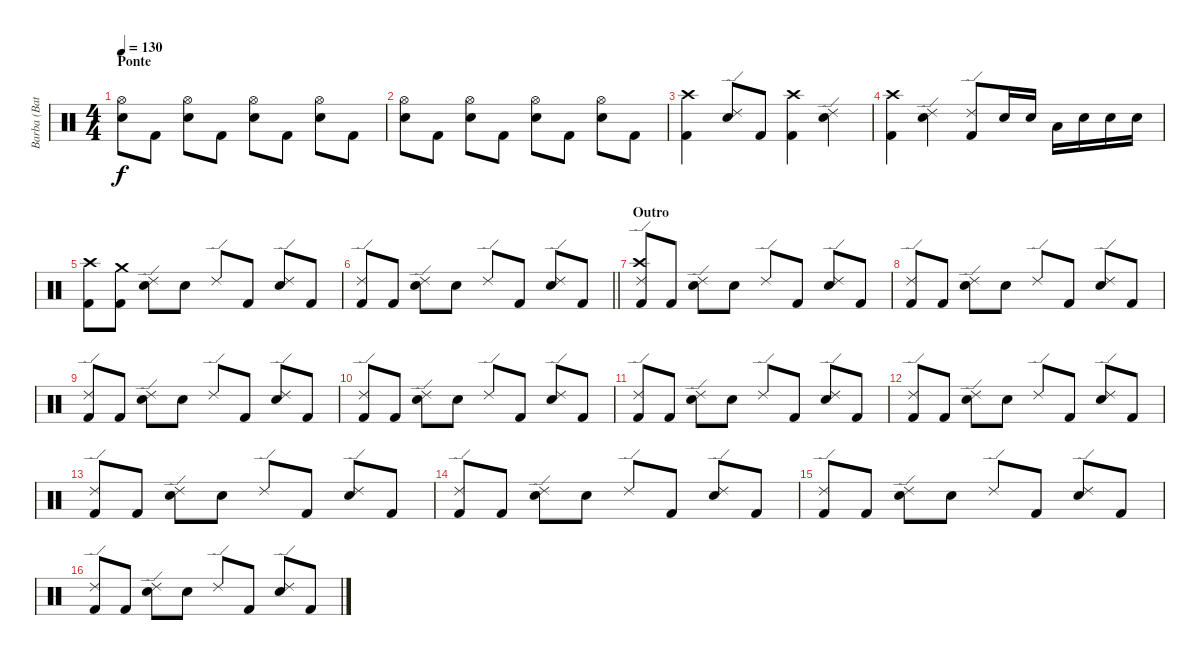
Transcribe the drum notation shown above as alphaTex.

\track ("Barba (Bateria)" "Barba (Bat") {instrument percussion}
\staff {score}
\articulation defaults
\ts (4 4)
\section ("" "Ponte")
\tempo 130
\clef neutral
\ks c
("Hi-Hat (open)" "Electric Snare (hit)").8{dy f} "Kick (hit) 2".8 ("Hi-Hat (open)" "Electric Snare (hit)").8 "Kick (hit) 2".8 ("Hi-Hat (open)" "Electric Snare (hit)").8 "Kick (hit) 2".8 ("Hi-Hat (open)" "Electric Snare (hit)").8 "Kick (hit) 2".8 |
("Hi-Hat (open)" "Electric Snare (hit)").8 "Kick (hit) 2".8 ("Hi-Hat (open)" "Electric Snare (hit)").8 "Kick (hit) 2".8 ("Hi-Hat (open)" "Electric Snare (hit)").8 "Kick (hit) 2".8 ("Hi-Hat (open)" "Electric Snare (hit)").8 "Kick (hit) 2".8 |
("Crash high (hit)" "Kick (hit) 2").4 ("Ride (edge) 2" "Electric Snare (hit)").8 "Kick (hit) 2".8 ("Crash high (hit)" "Kick (hit) 2").4 ("Ride (edge) 2" "Electric Snare (hit)").4 |
("Crash high (hit)" "Kick (hit) 2").4 ("Ride (edge) 2" "Electric Snare (hit)").4 ("Ride (edge) 2" "Kick (hit) 2").8 "Electric Snare (hit)".16 "Electric Snare (hit)".16 "Low Tom (hit)".16 "Electric Snare (hit)".16 "Electric Snare (hit)".16 "Electric Snare (hit)".16 |
("Crash high (hit)" "Kick (hit) 2").8 ("Crash medium (hit)" "Kick (hit) 2").8 ("Ride (edge) 2" "Electric Snare (hit)").8 "Electric Snare (hit)".8 "Ride (edge) 2".8 "Kick (hit) 2".8 ("Ride (edge) 2" "Electric Snare (hit)").8 "Kick (hit) 2".8 |
\barLineRight lightlight
("Ride (edge) 2" "Kick (hit) 2").8 "Kick (hit) 2".8 ("Ride (edge) 2" "Electric Snare (hit)").8 "Electric Snare (hit)".8 "Ride (edge) 2".8 "Kick (hit) 2".8 ("Ride (edge) 2" "Electric Snare (hit)").8 "Kick (hit) 2".8 |
\section ("" "Outro")
("Crash high (hit)" "Ride (edge) 2" "Kick (hit) 2").8 "Kick (hit) 2".8 ("Ride (edge) 2" "Electric Snare (hit)").8 "Electric Snare (hit)".8 "Ride (edge) 2".8 "Kick (hit) 2".8 ("Ride (edge) 2" "Electric Snare (hit)").8 "Kick (hit) 2".8 |
("Ride (edge) 2" "Kick (hit) 2").8 "Kick (hit) 2".8 ("Ride (edge) 2" "Electric Snare (hit)").8 "Electric Snare (hit)".8 "Ride (edge) 2".8 "Kick (hit) 2".8 ("Ride (edge) 2" "Electric Snare (hit)").8 "Kick (hit) 2".8 |
("Ride (edge) 2" "Kick (hit) 2").8 "Kick (hit) 2".8 ("Ride (edge) 2" "Electric Snare (hit)").8 "Electric Snare (hit)".8 "Ride (edge) 2".8 "Kick (hit) 2".8 ("Ride (edge) 2" "Electric Snare (hit)").8 "Kick (hit) 2".8 |
("Ride (edge) 2" "Kick (hit) 2").8 "Kick (hit) 2".8 ("Ride (edge) 2" "Electric Snare (hit)").8 "Electric Snare (hit)".8 "Ride (edge) 2".8 "Kick (hit) 2".8 ("Ride (edge) 2" "Electric Snare (hit)").8 "Kick (hit) 2".8 |
("Ride (edge) 2" "Kick (hit) 2").8 "Kick (hit) 2".8 ("Ride (edge) 2" "Electric Snare (hit)").8 "Electric Snare (hit)".8 "Ride (edge) 2".8 "Kick (hit) 2".8 ("Ride (edge) 2" "Electric Snare (hit)").8 "Kick (hit) 2".8 |
("Ride (edge) 2" "Kick (hit) 2").8 "Kick (hit) 2".8 ("Ride (edge) 2" "Electric Snare (hit)").8 "Electric Snare (hit)".8 "Ride (edge) 2".8 "Kick (hit) 2".8 ("Ride (edge) 2" "Electric Snare (hit)").8 "Kick (hit) 2".8 |
("Ride (edge) 2" "Kick (hit) 2").8 "Kick (hit) 2".8 ("Ride (edge) 2" "Electric Snare (hit)").8 "Electric Snare (hit)".8 "Ride (edge) 2".8 "Kick (hit) 2".8 ("Ride (edge) 2" "Electric Snare (hit)").8 "Kick (hit) 2".8 |
("Ride (edge) 2" "Kick (hit) 2").8 "Kick (hit) 2".8 ("Ride (edge) 2" "Electric Snare (hit)").8 "Electric Snare (hit)".8 "Ride (edge) 2".8 "Kick (hit) 2".8 ("Ride (edge) 2" "Electric Snare (hit)").8 "Kick (hit) 2".8 |
("Ride (edge) 2" "Kick (hit) 2").8 "Kick (hit) 2".8 ("Ride (edge) 2" "Electric Snare (hit)").8 "Electric Snare (hit)".8 "Ride (edge) 2".8 "Kick (hit) 2".8 ("Ride (edge) 2" "Electric Snare (hit)").8 "Kick (hit) 2".8 |
("Ride (edge) 2" "Kick (hit) 2").8 "Kick (hit) 2".8 ("Ride (edge) 2" "Electric Snare (hit)").8 "Electric Snare (hit)".8 "Ride (edge) 2".8 "Kick (hit) 2".8 ("Ride (edge) 2" "Electric Snare (hit)").8 "Kick (hit) 2".8
